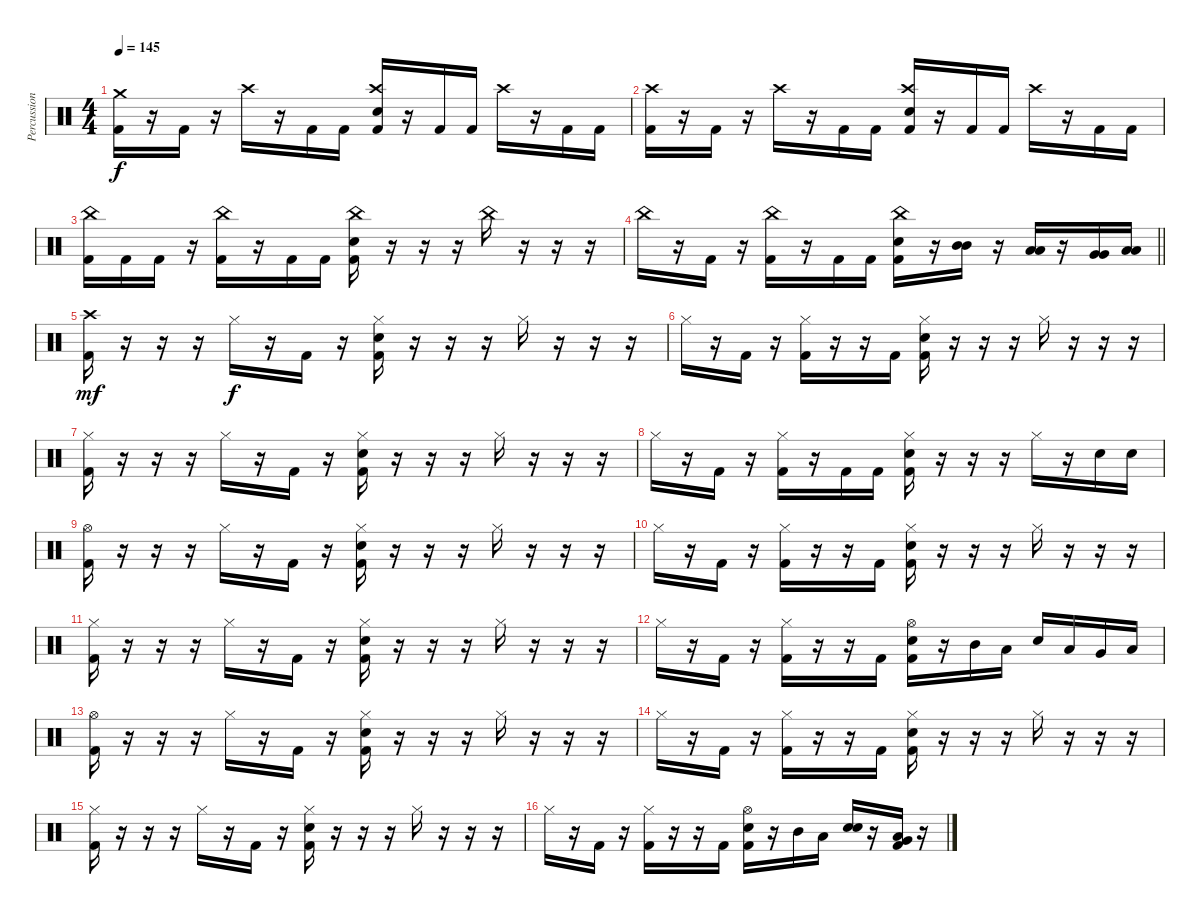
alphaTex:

\track ("Percussions" "Percussion") {instrument percussion}
\staff {score}
\articulation defaults
\ts (4 4)
\tempo 145
\clef neutral
\ks c
("Crash medium (hit)" "Kick (hit) 2").16{dy f} r.16 "Kick (hit) 2".16 r.16 "Crash high (hit)".16 r.16 "Kick (hit) 2".16 "Kick (hit) 2".16 ("Crash high (hit)" "Electric Snare (hit)" "Kick (hit) 2").16 r.16 "Kick (hit) 2".16 "Kick (hit) 2".16 "Crash high (hit)".16 r.16 "Kick (hit) 2".16 "Kick (hit) 2".16 |
("Crash high (hit)" "Kick (hit) 2").16 r.16 "Kick (hit) 2".16 r.16 "Crash high (hit)".16 r.16 "Kick (hit) 2".16 "Kick (hit) 2".16 ("Crash high (hit)" "Electric Snare (hit)" "Kick (hit) 2").16 r.16 "Kick (hit) 2".16 "Kick (hit) 2".16 "Crash high (hit)".16 r.16 "Kick (hit) 2".16 "Kick (hit) 2".16 |
("China (hit)" "Kick (hit) 2").16 "Kick (hit) 2".16 "Kick (hit) 2".16 r.16 ("China (hit)" "Kick (hit) 2").16 r.16 "Kick (hit) 2".16 "Kick (hit) 2".16 ("China (hit)" "Electric Snare (hit)" "Kick (hit) 2").16 r.16 r.16 r.16 "China (hit)".16 r.16 r.16 r.16 |
\barLineRight lightlight "China (hit)".16
r.16 "Kick (hit) 2".16 r.16 ("China (hit)" "Kick (hit) 2").16 r.16 "Kick (hit) 2".16 "Kick (hit) 2".16 ("China (hit)" "Electric Snare (hit)" "Kick (hit) 2").16 r.16 ("Mid Tom (hit)" "Mid Tom (hit)").16 r.16 ("Low Tom (hit)" "Low Tom (hit)").16 r.16 ("Very Low Tom (hit)" "Very Low Tom (hit)").16 ("Low Floor Tom (hit)" "Low Floor Tom (hit)").16 |
\section ("" "")
("Crash high (hit)" "Kick (hit) 2").16{dy mf} r.16 r.16 r.16 "Hi-Hat (closed)".16{dy f} r.16 "Kick (hit) 2".16 r.16 ("Hi-Hat (closed)" "Electric Snare (hit)" "Kick (hit) 2").16 r.16 r.16 r.16 "Hi-Hat (closed)".16 r.16 r.16 r.16 |
"Hi-Hat (closed)".16 r.16 "Kick (hit) 2".16 r.16 ("Hi-Hat (closed)" "Kick (hit) 2").16 r.16 r.16 "Kick (hit) 2".16 ("Hi-Hat (closed)" "Electric Snare (hit)" "Kick (hit) 2").16 r.16 r.16 r.16 "Hi-Hat (closed)".16 r.16 r.16 r.16 |
("Hi-Hat (closed)" "Kick (hit) 2").16 r.16 r.16 r.16 "Hi-Hat (closed)".16 r.16 "Kick (hit) 2".16 r.16 ("Hi-Hat (closed)" "Electric Snare (hit)" "Kick (hit) 2").16 r.16 r.16 r.16 "Hi-Hat (closed)".16 r.16 r.16 r.16 |
"Hi-Hat (closed)".16 r.16 "Kick (hit) 2".16 r.16 ("Hi-Hat (closed)" "Kick (hit) 2").16 r.16 "Kick (hit) 2".16 "Kick (hit) 2".16 ("Hi-Hat (closed)" "Electric Snare (hit)" "Kick (hit) 2").16 r.16 r.16 r.16 "Hi-Hat (closed)".16 r.16 "Electric Snare (hit)".16 "Electric Snare (hit)".16 |
("Hi-Hat (open)" "Kick (hit) 2").16 r.16 r.16 r.16 "Hi-Hat (closed)".16 r.16 "Kick (hit) 2".16 r.16 ("Hi-Hat (closed)" "Electric Snare (hit)" "Kick (hit) 2").16 r.16 r.16 r.16 "Hi-Hat (closed)".16 r.16 r.16 r.16 |
"Hi-Hat (closed)".16 r.16 "Kick (hit) 2".16 r.16 ("Hi-Hat (closed)" "Kick (hit) 2").16 r.16 r.16 "Kick (hit) 2".16 ("Hi-Hat (closed)" "Electric Snare (hit)" "Kick (hit) 2").16 r.16 r.16 r.16 "Hi-Hat (closed)".16 r.16 r.16 r.16 |
("Hi-Hat (closed)" "Kick (hit) 2").16 r.16 r.16 r.16 "Hi-Hat (closed)".16 r.16 "Kick (hit) 2".16 r.16 ("Hi-Hat (closed)" "Electric Snare (hit)" "Kick (hit) 2").16 r.16 r.16 r.16 "Hi-Hat (closed)".16 r.16 r.16 r.16 |
"Hi-Hat (closed)".16 r.16 "Kick (hit) 2".16 r.16 ("Hi-Hat (closed)" "Kick (hit) 2").16 r.16 r.16 "Kick (hit) 2".16 ("Hi-Hat (open)" "Electric Snare (hit)" "Kick (hit) 2").16 r.16 "Mid Tom (hit)".16 "Low Tom (hit)".16 "Electric Snare (hit)".16 "Low Tom (hit)".16 "Very Low Tom (hit)".16 "Low Floor Tom (hit)".16 |
("Hi-Hat (open)" "Kick (hit) 2").16 r.16 r.16 r.16 "Hi-Hat (closed)".16 r.16 "Kick (hit) 2".16 r.16 ("Hi-Hat (closed)" "Electric Snare (hit)" "Kick (hit) 2").16 r.16 r.16 r.16 "Hi-Hat (closed)".16 r.16 r.16 r.16 |
"Hi-Hat (closed)".16 r.16 "Kick (hit) 2".16 r.16 ("Hi-Hat (closed)" "Kick (hit) 2").16 r.16 r.16 "Kick (hit) 2".16 ("Hi-Hat (closed)" "Electric Snare (hit)" "Kick (hit) 2").16 r.16 r.16 r.16 "Hi-Hat (closed)".16 r.16 r.16 r.16 |
("Hi-Hat (closed)" "Kick (hit) 2").16 r.16 r.16 r.16 "Hi-Hat (closed)".16 r.16 "Kick (hit) 2".16 r.16 ("Hi-Hat (closed)" "Electric Snare (hit)" "Kick (hit) 2").16 r.16 r.16 r.16 "Hi-Hat (closed)".16 r.16 r.16 r.16 |
"Hi-Hat (closed)".16 r.16 "Kick (hit) 2".16 r.16 ("Hi-Hat (closed)" "Kick (hit) 2").16 r.16 r.16 "Kick (hit) 2".16 ("Hi-Hat (open)" "Electric Snare (hit)" "Kick (hit) 2").16 r.16 "Mid Tom (hit)".16 "Low Tom (hit)".16 ("Snare (hit) 2" "Electric Snare (hit)").16 r.16 ("Very Low Tom (hit)" "Low Floor Tom (hit)" "Kick (hit) 2").16 r.16
